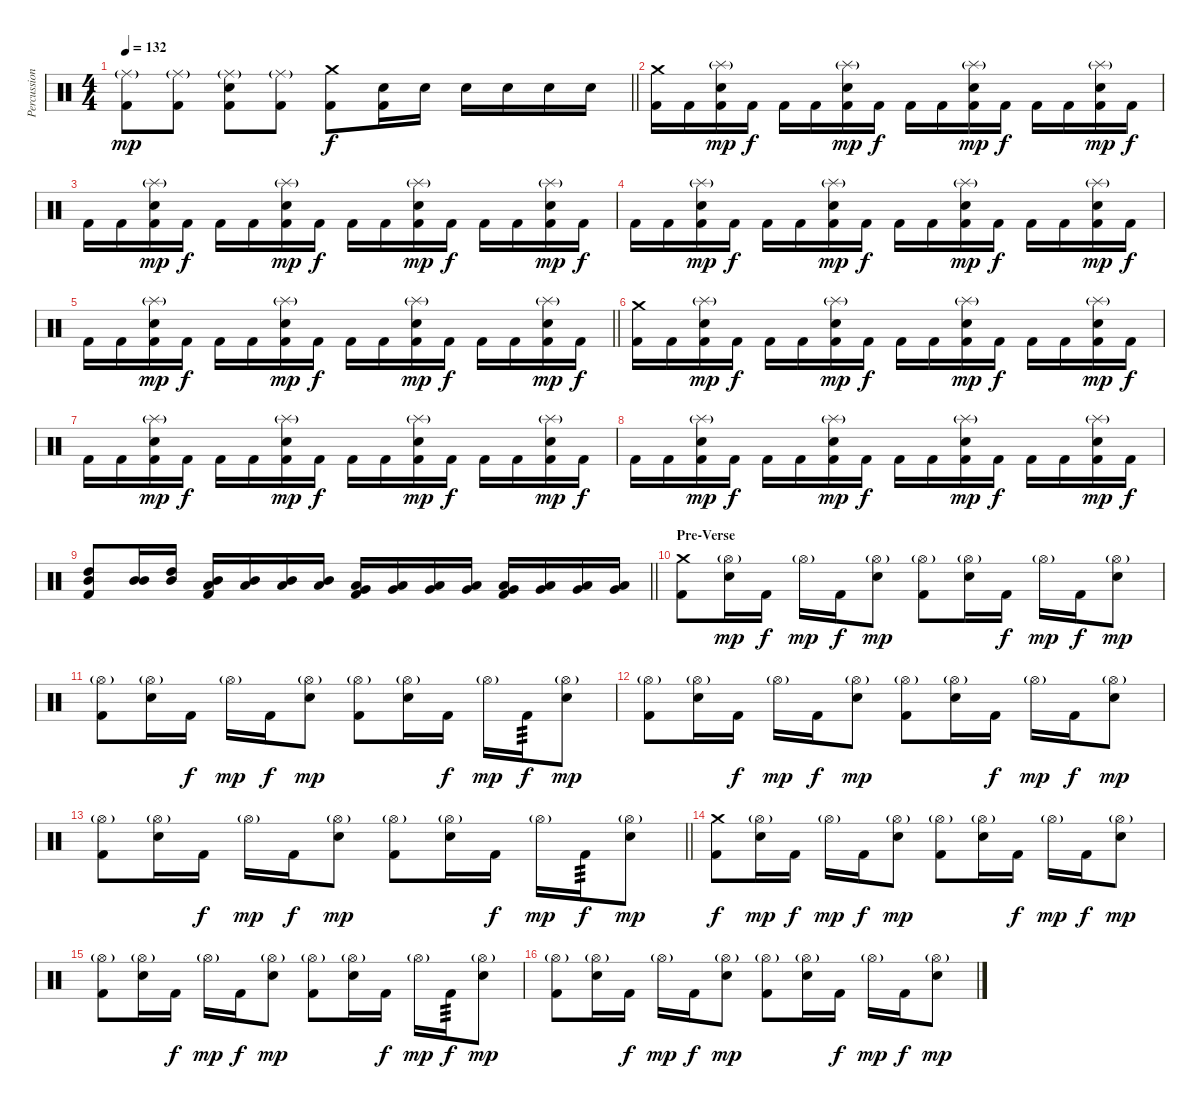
\track ("Percussion" "Percussion") {instrument percussion}
\staff {score}
\articulation defaults
\ts (4 4)
\tempo 132
\clef neutral
\barLineRight lightlight
\ks c
("Kick (hit) 2" "Ride (middle)"{g}).8{dy mp} ("Kick (hit) 2" "Ride (middle)"{g}).8 ("Kick (hit) 2" "Snare (hit) 2" "Ride (middle)"{g}).8 ("Kick (hit) 2" "Ride (middle)"{g}).8 ("Kick (hit) 2" "Crash medium (hit)").8{dy f} ("Kick (hit) 2" "Snare (hit) 2").16 "Snare (hit) 2".16 "Snare (hit) 2".16 "Snare (hit) 2".16 "Snare (hit) 2".16 "Snare (hit) 2".16 |
\section ("" "")
("Kick (hit) 2" "Crash medium (hit)").16 "Kick (hit) 2".16 ("Kick (hit) 2" "Snare (hit) 2" "Splash (hit)"{g}).16{dy mp} "Kick (hit) 2".16{dy f} "Kick (hit) 2".16 "Kick (hit) 2".16 ("Kick (hit) 2" "Snare (hit) 2" "Splash (hit)"{g}).16{dy mp} "Kick (hit) 2".16{dy f} "Kick (hit) 2".16 "Kick (hit) 2".16 ("Kick (hit) 2" "Snare (hit) 2" "Splash (hit)"{g}).16{dy mp} "Kick (hit) 2".16{dy f} "Kick (hit) 2".16 "Kick (hit) 2".16 ("Kick (hit) 2" "Snare (hit) 2" "Splash (hit)"{g}).16{dy mp} "Kick (hit) 2".16{dy f} |
"Kick (hit) 2".16 "Kick (hit) 2".16 ("Kick (hit) 2" "Snare (hit) 2" "Splash (hit)"{g}).16{dy mp} "Kick (hit) 2".16{dy f} "Kick (hit) 2".16 "Kick (hit) 2".16 ("Kick (hit) 2" "Snare (hit) 2" "Splash (hit)"{g}).16{dy mp} "Kick (hit) 2".16{dy f} "Kick (hit) 2".16 "Kick (hit) 2".16 ("Kick (hit) 2" "Snare (hit) 2" "Splash (hit)"{g}).16{dy mp} "Kick (hit) 2".16{dy f} "Kick (hit) 2".16 "Kick (hit) 2".16 ("Kick (hit) 2" "Snare (hit) 2" "Splash (hit)"{g}).16{dy mp} "Kick (hit) 2".16{dy f} |
"Kick (hit) 2".16 "Kick (hit) 2".16 ("Kick (hit) 2" "Snare (hit) 2" "Splash (hit)"{g}).16{dy mp} "Kick (hit) 2".16{dy f} "Kick (hit) 2".16 "Kick (hit) 2".16 ("Kick (hit) 2" "Snare (hit) 2" "Splash (hit)"{g}).16{dy mp} "Kick (hit) 2".16{dy f} "Kick (hit) 2".16 "Kick (hit) 2".16 ("Kick (hit) 2" "Snare (hit) 2" "Splash (hit)"{g}).16{dy mp} "Kick (hit) 2".16{dy f} "Kick (hit) 2".16 "Kick (hit) 2".16 ("Kick (hit) 2" "Snare (hit) 2" "Splash (hit)"{g}).16{dy mp} "Kick (hit) 2".16{dy f} |
\barLineRight lightlight "Kick (hit) 2".16 "Kick (hit) 2".16
("Kick (hit) 2" "Snare (hit) 2" "Splash (hit)"{g}).16{dy mp} "Kick (hit) 2".16{dy f} "Kick (hit) 2".16 "Kick (hit) 2".16 ("Kick (hit) 2" "Snare (hit) 2" "Splash (hit)"{g}).16{dy mp} "Kick (hit) 2".16{dy f} "Kick (hit) 2".16 "Kick (hit) 2".16 ("Kick (hit) 2" "Snare (hit) 2" "Splash (hit)"{g}).16{dy mp} "Kick (hit) 2".16{dy f} "Kick (hit) 2".16 "Kick (hit) 2".16 ("Kick (hit) 2" "Snare (hit) 2" "Splash (hit)"{g}).16{dy mp} "Kick (hit) 2".16{dy f} |
("Kick (hit) 2" "Crash medium (hit)").16 "Kick (hit) 2".16 ("Kick (hit) 2" "Snare (hit) 2" "Splash (hit)"{g}).16{dy mp} "Kick (hit) 2".16{dy f} "Kick (hit) 2".16 "Kick (hit) 2".16 ("Kick (hit) 2" "Snare (hit) 2" "Splash (hit)"{g}).16{dy mp} "Kick (hit) 2".16{dy f} "Kick (hit) 2".16 "Kick (hit) 2".16 ("Kick (hit) 2" "Snare (hit) 2" "Splash (hit)"{g}).16{dy mp} "Kick (hit) 2".16{dy f} "Kick (hit) 2".16 "Kick (hit) 2".16 ("Kick (hit) 2" "Snare (hit) 2" "Splash (hit)"{g}).16{dy mp} "Kick (hit) 2".16{dy f} |
"Kick (hit) 2".16 "Kick (hit) 2".16 ("Kick (hit) 2" "Snare (hit) 2" "Splash (hit)"{g}).16{dy mp} "Kick (hit) 2".16{dy f} "Kick (hit) 2".16 "Kick (hit) 2".16 ("Kick (hit) 2" "Snare (hit) 2" "Splash (hit)"{g}).16{dy mp} "Kick (hit) 2".16{dy f} "Kick (hit) 2".16 "Kick (hit) 2".16 ("Kick (hit) 2" "Snare (hit) 2" "Splash (hit)"{g}).16{dy mp} "Kick (hit) 2".16{dy f} "Kick (hit) 2".16 "Kick (hit) 2".16 ("Kick (hit) 2" "Snare (hit) 2" "Splash (hit)"{g}).16{dy mp} "Kick (hit) 2".16{dy f} |
"Kick (hit) 2".16 "Kick (hit) 2".16 ("Kick (hit) 2" "Snare (hit) 2" "Splash (hit)"{g}).16{dy mp} "Kick (hit) 2".16{dy f} "Kick (hit) 2".16 "Kick (hit) 2".16 ("Kick (hit) 2" "Snare (hit) 2" "Splash (hit)"{g}).16{dy mp} "Kick (hit) 2".16{dy f} "Kick (hit) 2".16 "Kick (hit) 2".16 ("Kick (hit) 2" "Snare (hit) 2" "Splash (hit)"{g}).16{dy mp} "Kick (hit) 2".16{dy f} "Kick (hit) 2".16 "Kick (hit) 2".16 ("Kick (hit) 2" "Snare (hit) 2" "Splash (hit)"{g}).16{dy mp} "Kick (hit) 2".16{dy f} |
\barLineRight lightlight
("Kick (hit) 2" "Mid Tom (hit)" "High Tom (hit)").8 ("Mid Tom (hit)" "Mid Tom (hit)").16 ("Mid Tom (hit)" "High Tom (hit)").16 ("Kick (hit) 2" "Low Tom (hit)" "Mid Tom (hit)").16 ("Low Tom (hit)" "Mid Tom (hit)").16 ("Low Tom (hit)" "Mid Tom (hit)").16 ("Low Tom (hit)" "Mid Tom (hit)").16 ("Kick (hit) 2" "Very Low Tom (hit)" "Low Tom (hit)").16 ("Very Low Tom (hit)" "Low Tom (hit)").16 ("Very Low Tom (hit)" "Low Tom (hit)").16 ("Very Low Tom (hit)" "Low Tom (hit)").16 ("Kick (hit) 2" "Low Floor Tom (hit)" "Very Low Tom (hit)").16 ("Low Floor Tom (hit)" "Very Low Tom (hit)").16 ("Low Floor Tom (hit)" "Very Low Tom (hit)").16 ("Low Floor Tom (hit)" "Very Low Tom (hit)").16 |
\section ("" "Pre-Verse")
("Kick (hit) 2" "Crash medium (hit)").8 ("Snare (hit) 2" "Hi-Hat (open)"{g}).16{dy mp} "Kick (hit) 2".16{dy f} "Hi-Hat (open)"{g}.16{dy mp} "Kick (hit) 2".16{dy f} ("Snare (hit) 2" "Hi-Hat (open)"{g}).8{dy mp} ("Kick (hit) 2" "Hi-Hat (open)"{g}).8 ("Snare (hit) 2" "Hi-Hat (open)"{g}).16 "Kick (hit) 2".16{dy f} "Hi-Hat (open)"{g}.16{dy mp} "Kick (hit) 2".16{dy f} ("Snare (hit) 2" "Hi-Hat (open)"{g}).8{dy mp} |
("Kick (hit) 2" "Hi-Hat (open)"{g}).8 ("Snare (hit) 2" "Hi-Hat (open)"{g}).16 "Kick (hit) 2".16{dy f} "Hi-Hat (open)"{g}.16{dy mp} "Kick (hit) 2".16{dy f} ("Snare (hit) 2" "Hi-Hat (open)"{g}).8{dy mp} ("Kick (hit) 2" "Hi-Hat (open)"{g}).8 ("Snare (hit) 2" "Hi-Hat (open)"{g}).16 "Kick (hit) 2".16{dy f} "Hi-Hat (open)"{g}.16{dy mp} "Kick (hit) 2".16{tp 3 dy f} ("Snare (hit) 2" "Hi-Hat (open)"{g}).8{dy mp} |
("Kick (hit) 2" "Hi-Hat (open)"{g}).8 ("Snare (hit) 2" "Hi-Hat (open)"{g}).16 "Kick (hit) 2".16{dy f} "Hi-Hat (open)"{g}.16{dy mp} "Kick (hit) 2".16{dy f} ("Snare (hit) 2" "Hi-Hat (open)"{g}).8{dy mp} ("Kick (hit) 2" "Hi-Hat (open)"{g}).8 ("Snare (hit) 2" "Hi-Hat (open)"{g}).16 "Kick (hit) 2".16{dy f} "Hi-Hat (open)"{g}.16{dy mp} "Kick (hit) 2".16{dy f} ("Snare (hit) 2" "Hi-Hat (open)"{g}).8{dy mp} |
\barLineRight lightlight
("Kick (hit) 2" "Hi-Hat (open)"{g}).8 ("Snare (hit) 2" "Hi-Hat (open)"{g}).16 "Kick (hit) 2".16{dy f} "Hi-Hat (open)"{g}.16{dy mp} "Kick (hit) 2".16{dy f} ("Snare (hit) 2" "Hi-Hat (open)"{g}).8{dy mp} ("Kick (hit) 2" "Hi-Hat (open)"{g}).8 ("Snare (hit) 2" "Hi-Hat (open)"{g}).16 "Kick (hit) 2".16{dy f} "Hi-Hat (open)"{g}.16{dy mp} "Kick (hit) 2".16{tp 3 dy f} ("Snare (hit) 2" "Hi-Hat (open)"{g}).8{dy mp} |
("Kick (hit) 2" "Crash medium (hit)").8{dy f} ("Snare (hit) 2" "Hi-Hat (open)"{g}).16{dy mp} "Kick (hit) 2".16{dy f} "Hi-Hat (open)"{g}.16{dy mp} "Kick (hit) 2".16{dy f} ("Snare (hit) 2" "Hi-Hat (open)"{g}).8{dy mp} ("Kick (hit) 2" "Hi-Hat (open)"{g}).8 ("Snare (hit) 2" "Hi-Hat (open)"{g}).16 "Kick (hit) 2".16{dy f} "Hi-Hat (open)"{g}.16{dy mp} "Kick (hit) 2".16{dy f} ("Snare (hit) 2" "Hi-Hat (open)"{g}).8{dy mp} |
("Kick (hit) 2" "Hi-Hat (open)"{g}).8 ("Snare (hit) 2" "Hi-Hat (open)"{g}).16 "Kick (hit) 2".16{dy f} "Hi-Hat (open)"{g}.16{dy mp} "Kick (hit) 2".16{dy f} ("Snare (hit) 2" "Hi-Hat (open)"{g}).8{dy mp} ("Kick (hit) 2" "Hi-Hat (open)"{g}).8 ("Snare (hit) 2" "Hi-Hat (open)"{g}).16 "Kick (hit) 2".16{dy f} "Hi-Hat (open)"{g}.16{dy mp} "Kick (hit) 2".16{tp 3 dy f} ("Snare (hit) 2" "Hi-Hat (open)"{g}).8{dy mp} |
("Kick (hit) 2" "Hi-Hat (open)"{g}).8 ("Snare (hit) 2" "Hi-Hat (open)"{g}).16 "Kick (hit) 2".16{dy f} "Hi-Hat (open)"{g}.16{dy mp} "Kick (hit) 2".16{dy f} ("Snare (hit) 2" "Hi-Hat (open)"{g}).8{dy mp} ("Kick (hit) 2" "Hi-Hat (open)"{g}).8 ("Snare (hit) 2" "Hi-Hat (open)"{g}).16 "Kick (hit) 2".16{dy f} "Hi-Hat (open)"{g}.16{dy mp} "Kick (hit) 2".16{dy f} ("Snare (hit) 2" "Hi-Hat (open)"{g}).8{dy mp}
